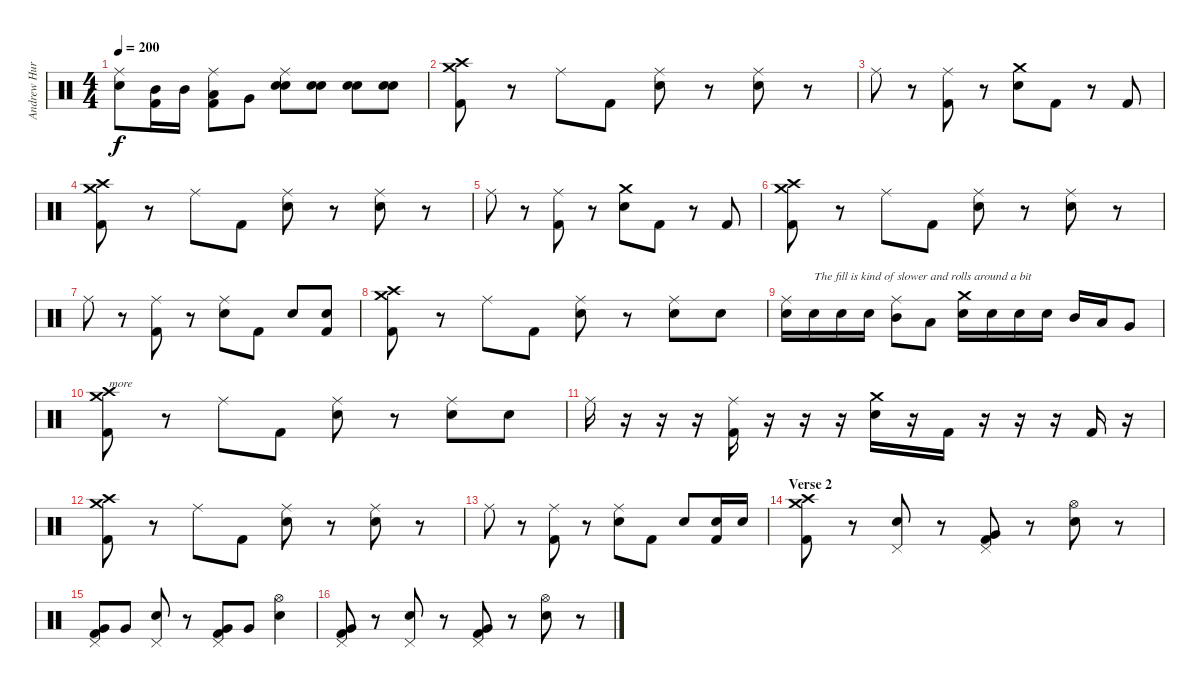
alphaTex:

\track ("Andrew Hurley (Drums)" "Andrew Hur") {instrument percussion}
\staff {score}
\articulation defaults
\ts (4 4)
\tempo 200
\clef neutral
\ks c
("Ride (middle)" "Electric Snare (hit)").8{dy f} ("Mid Tom (hit)" "Kick (hit) 2").16 "Mid Tom (hit)".16 ("Ride (middle)" "Low Tom (hit)" "Kick (hit) 2").8 "Very Low Tom (hit)".8 ("Ride (middle)" "Electric Snare (hit)" "Snare (hit) 2").8 ("Electric Snare (hit)" "Snare (hit) 2").8 ("Electric Snare (hit)" "Snare (hit) 2").8 ("Electric Snare (hit)" "Snare (hit) 2").8 |
("Crash medium (hit)" "Crash high (hit)" "Kick (hit) 2").8 r.8 "Ride (middle)".8 "Kick (hit) 2".8 ("Ride (middle)" "Electric Snare (hit)").8 r.8 ("Ride (middle)" "Electric Snare (hit)").8 r.8 |
"Ride (middle)".8 r.8 ("Ride (middle)" "Kick (hit) 2").8 r.8 ("Crash medium (hit)" "Electric Snare (hit)").8 "Kick (hit) 2".8 r.8 "Kick (hit) 2".8 |
("Crash medium (hit)" "Crash high (hit)" "Kick (hit) 2").8 r.8 "Ride (middle)".8 "Kick (hit) 2".8 ("Ride (middle)" "Electric Snare (hit)").8 r.8 ("Ride (middle)" "Electric Snare (hit)").8 r.8 |
"Ride (middle)".8 r.8 ("Ride (middle)" "Kick (hit) 2").8 r.8 ("Crash medium (hit)" "Electric Snare (hit)").8 "Kick (hit) 2".8 r.8 "Kick (hit) 2".8 |
("Crash medium (hit)" "Crash high (hit)" "Kick (hit) 2").8 r.8 "Ride (middle)".8 "Kick (hit) 2".8 ("Ride (middle)" "Electric Snare (hit)").8 r.8 ("Ride (middle)" "Electric Snare (hit)").8 r.8 |
"Ride (middle)".8 r.8 ("Ride (middle)" "Kick (hit) 2").8 r.8 ("Ride (middle)" "Electric Snare (hit)").8 "Kick (hit) 2".8 "Electric Snare (hit)".8 ("Electric Snare (hit)" "Kick (hit) 2").8 |
("Crash medium (hit)" "Crash high (hit)" "Kick (hit) 2").8 r.8 "Ride (middle)".8 "Kick (hit) 2".8 ("Ride (middle)" "Electric Snare (hit)").8 r.8 ("Ride (middle)" "Electric Snare (hit)").8 "Electric Snare (hit)".8 |
("Ride (middle)" "Electric Snare (hit)").16 "Electric Snare (hit)".16{txt "The fill is kind of slower and rolls around a bit"} "Snare (hit) 2".16 "Snare (hit) 2".16 ("Ride (middle)" "Mid Tom (hit)").8 "Low Tom (hit)".8 ("Crash medium (hit)" "Electric Snare (hit)").16 "Electric Snare (hit)".16 "Electric Snare (hit)".16 "Snare (hit) 2".16 "Mid Tom (hit)".16 "Low Tom (hit)".16 "Very Low Tom (hit)".8 |
("Crash medium (hit)" "Crash high (hit)" "Kick (hit) 2").8{txt "more"} r.8 "Ride (middle)".8 "Kick (hit) 2".8 ("Ride (middle)" "Electric Snare (hit)").8 r.8 ("Ride (middle)" "Electric Snare (hit)").8 "Electric Snare (hit)".8 |
"Ride (middle)".16 r.16 r.16 r.16 ("Ride (middle)" "Kick (hit) 2").16 r.16 r.16 r.16 ("Crash medium (hit)" "Electric Snare (hit)").16 r.16 "Kick (hit) 2".16 r.16 r.16 r.16 "Kick (hit) 2".16 r.16 |
("Crash medium (hit)" "Crash high (hit)" "Kick (hit) 2").8 r.8 "Ride (middle)".8 "Kick (hit) 2".8 ("Ride (middle)" "Electric Snare (hit)").8 r.8 ("Ride (middle)" "Electric Snare (hit)").8 r.8 |
"Ride (middle)".8 r.8 ("Ride (middle)" "Kick (hit) 2").8 r.8 ("Ride (middle)" "Electric Snare (hit)").8 "Kick (hit) 2".8 "Electric Snare (hit)".8 ("Electric Snare (hit)" "Kick (hit) 2").16 "Electric Snare (hit)".16 |
\section ("" "Verse 2")
("Crash medium (hit)" "Crash high (hit)" "Kick (hit) 2").8 r.8 ("Pedal Hi-Hat (hit)" "Electric Snare (hit)").8 r.8 ("Pedal Hi-Hat (hit)" "Very Low Tom (hit)" "Kick (hit) 2").8 r.8 ("Hi-Hat (open)" "Electric Snare (hit)").8 r.8 |
("Pedal Hi-Hat (hit)" "Very Low Tom (hit)" "Kick (hit) 2").8 "Very Low Tom (hit)".8 ("Pedal Hi-Hat (hit)" "Electric Snare (hit)").8 r.8 ("Pedal Hi-Hat (hit)" "Very Low Tom (hit)" "Kick (hit) 2").8 "Very Low Tom (hit)".8 ("Hi-Hat (open)" "Electric Snare (hit)").4 |
("Pedal Hi-Hat (hit)" "Very Low Tom (hit)" "Kick (hit) 2").8 r.8 ("Pedal Hi-Hat (hit)" "Electric Snare (hit)").8 r.8 ("Pedal Hi-Hat (hit)" "Very Low Tom (hit)" "Kick (hit) 2").8 r.8 ("Hi-Hat (open)" "Electric Snare (hit)").8 r.8
